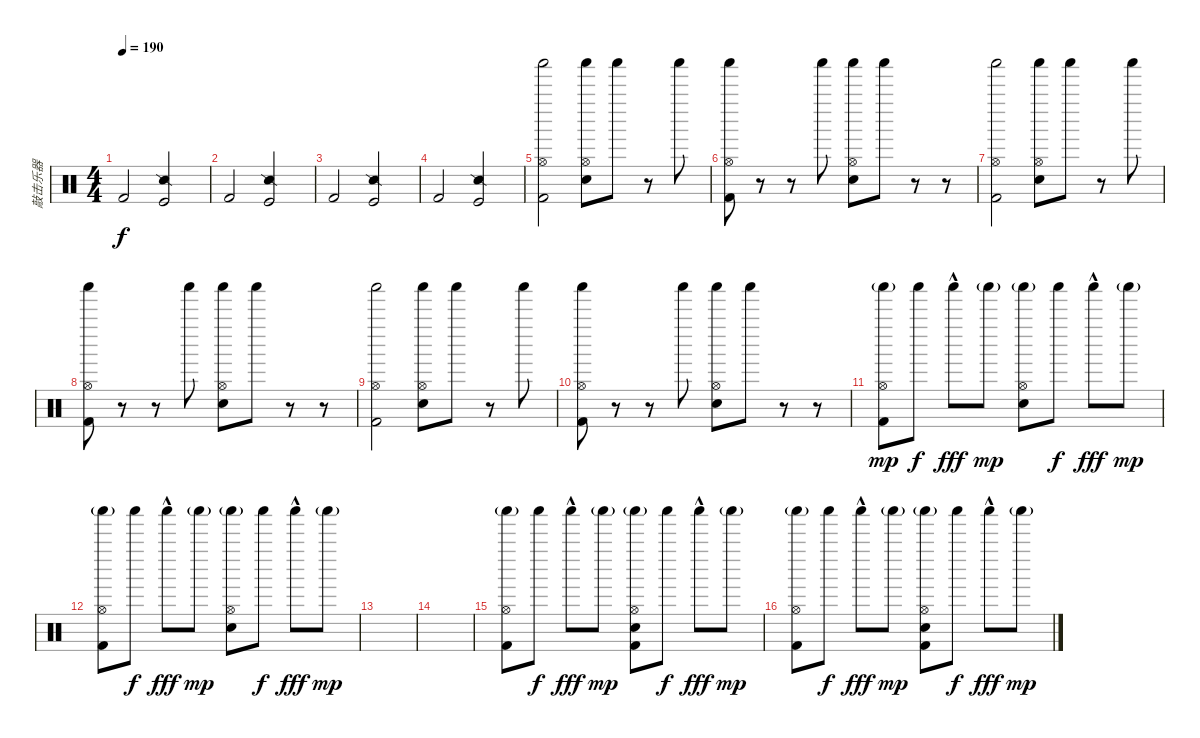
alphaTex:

\track ("敲击乐器" "敲击乐器") {instrument percussion}
\staff {score}
\articulation defaults
\ts (4 4)
\tempo 190
\clef neutral
\ks c "Kick (hit) 2".2{dy f}
("Kick (hit)" "Snare (side stick) 2").2 |
"Kick (hit) 2".2 ("Kick (hit)" "Snare (side stick) 2").2 |
"Kick (hit) 2".2 ("Kick (hit)" "Snare (side stick) 2").2 |
"Kick (hit) 2".2 ("Kick (hit)" "Snare (side stick) 2").2 |
("Hi-Hat (open)" "Kick (hit) 2" "Shaker (hit)").2 ("Hi-Hat (open)" "Snare (hit) 2" "Shaker (hit)").8 "Shaker (hit)".8 r.8 "Shaker (hit)".8 |
("Hi-Hat (open)" "Kick (hit) 2" "Shaker (hit)").8 r.8 r.8 "Shaker (hit)".8 ("Hi-Hat (open)" "Snare (hit) 2" "Shaker (hit)").8 "Shaker (hit)".8 r.8 r.8 |
("Hi-Hat (open)" "Kick (hit) 2" "Shaker (hit)").2 ("Hi-Hat (open)" "Snare (hit) 2" "Shaker (hit)").8 "Shaker (hit)".8 r.8 "Shaker (hit)".8 |
("Hi-Hat (open)" "Kick (hit) 2" "Shaker (hit)").8 r.8 r.8 "Shaker (hit)".8 ("Hi-Hat (open)" "Snare (hit) 2" "Shaker (hit)").8 "Shaker (hit)".8 r.8 r.8 |
("Hi-Hat (open)" "Kick (hit) 2" "Shaker (hit)").2 ("Hi-Hat (open)" "Snare (hit) 2" "Shaker (hit)").8 "Shaker (hit)".8 r.8 "Shaker (hit)".8 |
("Hi-Hat (open)" "Kick (hit) 2" "Shaker (hit)").8 r.8 r.8 "Shaker (hit)".8 ("Hi-Hat (open)" "Snare (hit) 2" "Shaker (hit)").8 "Shaker (hit)".8 r.8 r.8 |
("Hi-Hat (open)" "Kick (hit) 2" "Shaker (hit)"{g}).8{dy mp} "Shaker (hit)".8{dy f} "Shaker (hit)"{hac}.8{dy fff} "Shaker (hit)"{g}.8{dy mp} ("Hi-Hat (open)" "Snare (hit) 2" "Shaker (hit)"{g}).8 "Shaker (hit)".8{dy f} "Shaker (hit)"{hac}.8{dy fff} "Shaker (hit)"{g}.8{dy mp} |
("Hi-Hat (open)" "Kick (hit) 2" "Shaker (hit)"{g}).8 "Shaker (hit)".8{dy f} "Shaker (hit)"{hac}.8{dy fff} "Shaker (hit)"{g}.8{dy mp} ("Hi-Hat (open)" "Snare (hit) 2" "Shaker (hit)"{g}).8 "Shaker (hit)".8{dy f} "Shaker (hit)"{hac}.8{dy fff} "Shaker (hit)"{g}.8{dy mp} |
|
|
("Hi-Hat (open)" "Kick (hit) 2" "Shaker (hit)"{g}).8 "Shaker (hit)".8{dy f} "Shaker (hit)"{hac}.8{dy fff} "Shaker (hit)"{g}.8{dy mp} ("Hi-Hat (open)" "Snare (hit) 2" "Kick (hit) 2" "Shaker (hit)"{g}).8 "Shaker (hit)".8{dy f} "Shaker (hit)"{hac}.8{dy fff} "Shaker (hit)"{g}.8{dy mp} |
("Hi-Hat (open)" "Kick (hit) 2" "Shaker (hit)"{g}).8 "Shaker (hit)".8{dy f} "Shaker (hit)"{hac}.8{dy fff} "Shaker (hit)"{g}.8{dy mp} ("Hi-Hat (open)" "Snare (hit) 2" "Kick (hit) 2" "Shaker (hit)"{g}).8 "Shaker (hit)".8{dy f} "Shaker (hit)"{hac}.8{dy fff} "Shaker (hit)"{g}.8{dy mp}
